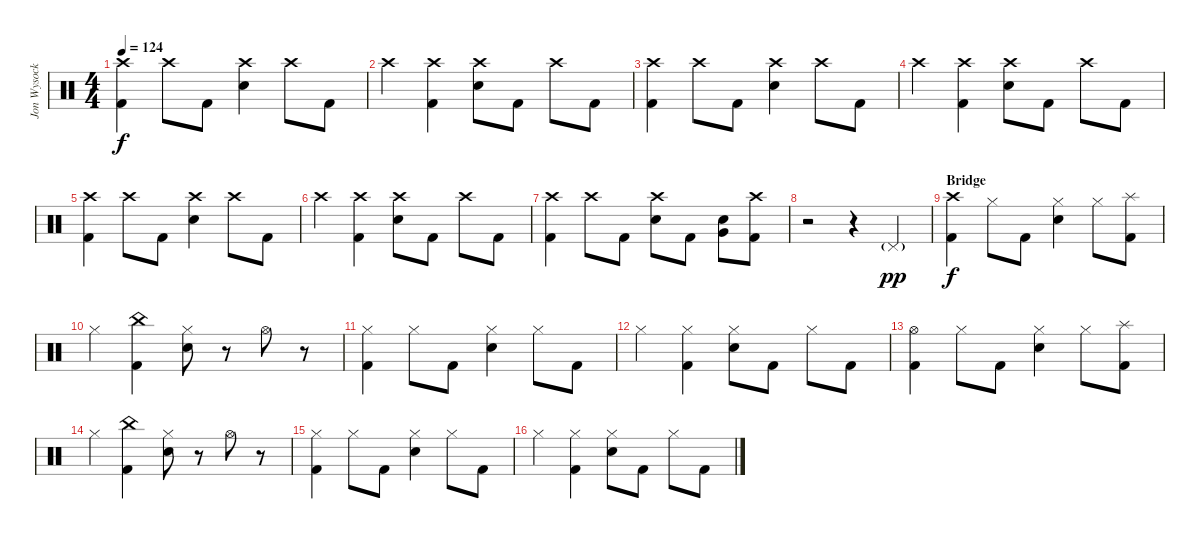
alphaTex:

\track ("Jon Wysocki - Drums" "Jon Wysock") {instrument percussion}
\staff {score}
\articulation defaults
\ts (4 4)
\tempo 124
\clef neutral
\ks c
("Crash high (hit)" "Kick (hit) 2").4{dy f} "Crash high (hit)".8 "Kick (hit) 2".8 ("Crash high (hit)" "Electric Snare (hit)").4 "Crash high (hit)".8 "Kick (hit) 2".8 |
"Crash high (hit)".4 ("Crash high (hit)" "Kick (hit) 2").4 ("Crash high (hit)" "Electric Snare (hit)").8 "Kick (hit) 2".8 "Crash high (hit)".8 "Kick (hit) 2".8 |
("Crash high (hit)" "Kick (hit) 2").4 "Crash high (hit)".8 "Kick (hit) 2".8 ("Crash high (hit)" "Electric Snare (hit)").4 "Crash high (hit)".8 "Kick (hit) 2".8 |
"Crash high (hit)".4 ("Crash high (hit)" "Kick (hit) 2").4 ("Crash high (hit)" "Electric Snare (hit)").8 "Kick (hit) 2".8 "Crash high (hit)".8 "Kick (hit) 2".8 |
("Crash high (hit)" "Kick (hit) 2").4 "Crash high (hit)".8 "Kick (hit) 2".8 ("Crash high (hit)" "Electric Snare (hit)").4 "Crash high (hit)".8 "Kick (hit) 2".8 |
"Crash high (hit)".4 ("Crash high (hit)" "Kick (hit) 2").4 ("Crash high (hit)" "Electric Snare (hit)").8 "Kick (hit) 2".8 "Crash high (hit)".8 "Kick (hit) 2".8 |
("Crash high (hit)" "Kick (hit) 2").4 "Crash high (hit)".8 "Kick (hit) 2".8 ("Crash high (hit)" "Electric Snare (hit)").8 "Kick (hit) 2".8 ("Very Low Tom (hit)" "Electric Snare (hit)").8 ("Crash high (hit)" "Kick (hit) 2").8 |
r.2 r.4 "Pedal Hi-Hat (hit)"{g}.4{dy pp} |
\section ("" "Bridge")
("Crash high (hit)" "Kick (hit) 2").4{dy f} "Hi-Hat (closed)".8 "Kick (hit) 2".8 ("Hi-Hat (closed)" "Electric Snare (hit)").4 "Hi-Hat (closed)".8 ("Splash (hit)" "Kick (hit) 2").8 |
"Hi-Hat (closed)".4 ("China (hit)" "Kick (hit) 2").4 ("Hi-Hat (closed)" "Electric Snare (hit)").8 r.8 "Hi-Hat (open)".8 r.8 |
("Hi-Hat (closed)" "Kick (hit) 2").4 "Hi-Hat (closed)".8 "Kick (hit) 2".8 ("Hi-Hat (closed)" "Electric Snare (hit)").4 "Hi-Hat (closed)".8 "Kick (hit) 2".8 |
"Hi-Hat (closed)".4 ("Hi-Hat (closed)" "Kick (hit) 2").4 ("Hi-Hat (closed)" "Electric Snare (hit)").8 "Kick (hit) 2".8 "Hi-Hat (closed)".8 "Kick (hit) 2".8 |
("Hi-Hat (open)" "Kick (hit) 2").4 "Hi-Hat (closed)".8 "Kick (hit) 2".8 ("Hi-Hat (closed)" "Electric Snare (hit)").4 "Hi-Hat (closed)".8 ("Splash (hit)" "Kick (hit) 2").8 |
"Hi-Hat (closed)".4 ("China (hit)" "Kick (hit) 2").4 ("Hi-Hat (closed)" "Electric Snare (hit)").8 r.8 "Hi-Hat (open)".8 r.8 |
("Hi-Hat (closed)" "Kick (hit) 2").4 "Hi-Hat (closed)".8 "Kick (hit) 2".8 ("Hi-Hat (closed)" "Electric Snare (hit)").4 "Hi-Hat (closed)".8 "Kick (hit) 2".8 |
"Hi-Hat (closed)".4 ("Hi-Hat (closed)" "Kick (hit) 2").4 ("Hi-Hat (closed)" "Electric Snare (hit)").8 "Kick (hit) 2".8 "Hi-Hat (closed)".8 "Kick (hit) 2".8
